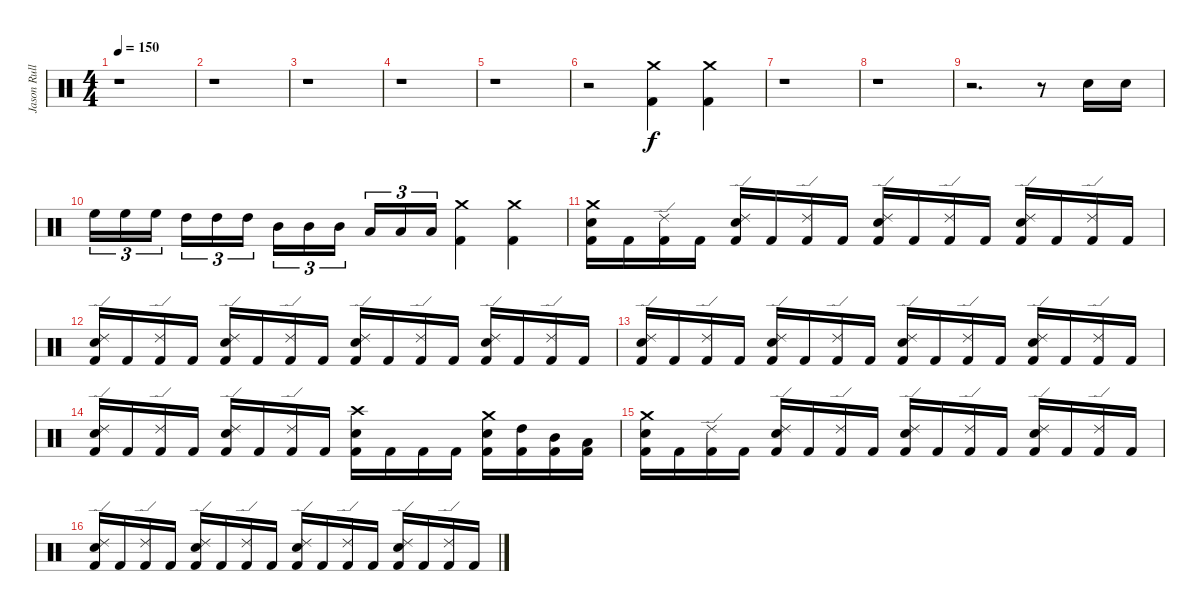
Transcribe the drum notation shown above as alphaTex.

\track ("Jason Rullo" "Jason Rull") {instrument percussion}
\staff {score}
\articulation defaults
\ts (4 4)
\tempo 150
\clef neutral
\ks c
r.1{dy f} |
r.1 |
r.1 |
r.1 |
r.1 |
r.2 ("Crash medium (hit)" "Kick (hit) 2").4{volume 16 balance 8} ("Crash medium (hit)" "Kick (hit) 2").4 |
r.1 |
r.1 |
r.2{d} r.8 "Electric Snare (hit)".16 "Electric Snare (hit)".16 |
"High Floor Tom (hit)".16{tu (3 2)} "High Floor Tom (hit)".16{tu (3 2)} "High Floor Tom (hit)".16{tu (3 2)} "High Tom (hit)".16{tu (3 2)} "High Tom (hit)".16{tu (3 2)} "High Tom (hit)".16{tu (3 2)} "Mid Tom (hit)".16{tu (3 2)} "Mid Tom (hit)".16{tu (3 2)} "Mid Tom (hit)".16{tu (3 2)} "Low Tom (hit)".16{tu (3 2)} "Low Tom (hit)".16{tu (3 2)} "Low Tom (hit)".16{tu (3 2)} ("Crash medium (hit)" "Kick (hit) 2").4 ("Crash medium (hit)" "Kick (hit) 2").4 |
("Crash medium (hit)" "Electric Snare (hit)" "Kick (hit) 2").16 "Kick (hit) 2".16 ("Ride (edge) 2" "Kick (hit) 2").16 "Kick (hit) 2".16 ("Ride (edge) 2" "Electric Snare (hit)" "Kick (hit) 2").16 "Kick (hit) 2".16 ("Ride (edge) 2" "Kick (hit) 2").16 "Kick (hit) 2".16 ("Ride (edge) 2" "Electric Snare (hit)" "Kick (hit) 2").16 "Kick (hit) 2".16 ("Ride (edge) 2" "Kick (hit) 2").16 "Kick (hit) 2".16 ("Ride (edge) 2" "Electric Snare (hit)" "Kick (hit) 2").16 "Kick (hit) 2".16 ("Ride (edge) 2" "Kick (hit) 2").16 "Kick (hit) 2".16 |
("Ride (edge) 2" "Electric Snare (hit)" "Kick (hit) 2").16 "Kick (hit) 2".16 ("Ride (edge) 2" "Kick (hit) 2").16 "Kick (hit) 2".16 ("Ride (edge) 2" "Electric Snare (hit)" "Kick (hit) 2").16 "Kick (hit) 2".16 ("Ride (edge) 2" "Kick (hit) 2").16 "Kick (hit) 2".16 ("Ride (edge) 2" "Electric Snare (hit)" "Kick (hit) 2").16 "Kick (hit) 2".16 ("Ride (edge) 2" "Kick (hit) 2").16 "Kick (hit) 2".16 ("Ride (edge) 2" "Electric Snare (hit)" "Kick (hit) 2").16 "Kick (hit) 2".16 ("Ride (edge) 2" "Kick (hit) 2").16 "Kick (hit) 2".16 |
("Ride (edge) 2" "Electric Snare (hit)" "Kick (hit) 2").16 "Kick (hit) 2".16 ("Ride (edge) 2" "Kick (hit) 2").16 "Kick (hit) 2".16 ("Ride (edge) 2" "Electric Snare (hit)" "Kick (hit) 2").16 "Kick (hit) 2".16 ("Ride (edge) 2" "Kick (hit) 2").16 "Kick (hit) 2".16 ("Ride (edge) 2" "Electric Snare (hit)" "Kick (hit) 2").16 "Kick (hit) 2".16 ("Ride (edge) 2" "Kick (hit) 2").16 "Kick (hit) 2".16 ("Ride (edge) 2" "Electric Snare (hit)" "Kick (hit) 2").16 "Kick (hit) 2".16 ("Ride (edge) 2" "Kick (hit) 2").16 "Kick (hit) 2".16 |
("Ride (edge) 2" "Electric Snare (hit)" "Kick (hit) 2").16 "Kick (hit) 2".16 ("Ride (edge) 2" "Kick (hit) 2").16 "Kick (hit) 2".16 ("Ride (edge) 2" "Electric Snare (hit)" "Kick (hit) 2").16 "Kick (hit) 2".16 ("Ride (edge) 2" "Kick (hit) 2").16 "Kick (hit) 2".16 ("Crash high (hit)" "Electric Snare (hit)" "Kick (hit) 2").16 "Kick (hit) 2".16 "Kick (hit) 2".16 "Kick (hit) 2".16 ("Crash medium (hit)" "Electric Snare (hit)" "Kick (hit) 2").16 ("High Tom (hit)" "Kick (hit) 2").16 ("Mid Tom (hit)" "Kick (hit) 2").16 ("Low Tom (hit)" "Kick (hit) 2").16 |
("Crash medium (hit)" "Electric Snare (hit)" "Kick (hit) 2").16 "Kick (hit) 2".16 ("Ride (edge) 2" "Kick (hit) 2").16 "Kick (hit) 2".16 ("Ride (edge) 2" "Electric Snare (hit)" "Kick (hit) 2").16 "Kick (hit) 2".16 ("Ride (edge) 2" "Kick (hit) 2").16 "Kick (hit) 2".16 ("Ride (edge) 2" "Electric Snare (hit)" "Kick (hit) 2").16 "Kick (hit) 2".16 ("Ride (edge) 2" "Kick (hit) 2").16 "Kick (hit) 2".16 ("Ride (edge) 2" "Electric Snare (hit)" "Kick (hit) 2").16 "Kick (hit) 2".16 ("Ride (edge) 2" "Kick (hit) 2").16 "Kick (hit) 2".16 |
("Ride (edge) 2" "Electric Snare (hit)" "Kick (hit) 2").16 "Kick (hit) 2".16 ("Ride (edge) 2" "Kick (hit) 2").16 "Kick (hit) 2".16 ("Ride (edge) 2" "Electric Snare (hit)" "Kick (hit) 2").16 "Kick (hit) 2".16 ("Ride (edge) 2" "Kick (hit) 2").16 "Kick (hit) 2".16 ("Ride (edge) 2" "Electric Snare (hit)" "Kick (hit) 2").16 "Kick (hit) 2".16 ("Ride (edge) 2" "Kick (hit) 2").16 "Kick (hit) 2".16 ("Ride (edge) 2" "Electric Snare (hit)" "Kick (hit) 2").16 "Kick (hit) 2".16 ("Ride (edge) 2" "Kick (hit) 2").16 "Kick (hit) 2".16
